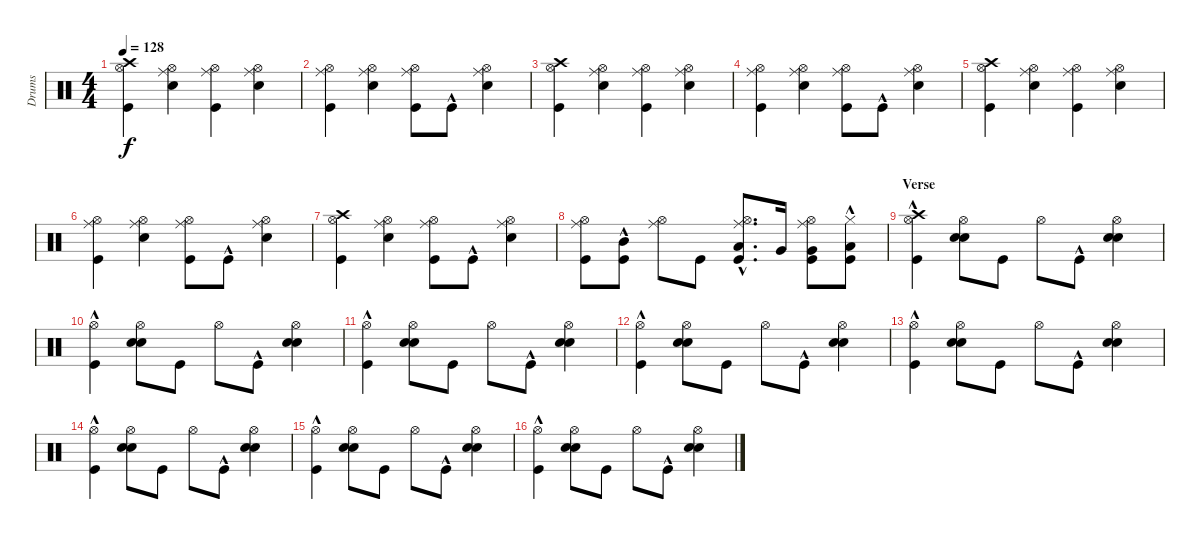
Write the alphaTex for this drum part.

\track ("Drums" "Drums") {instrument percussion}
\staff {score}
\articulation defaults
\ts (4 4)
\tempo 128
\clef neutral
\ks c
("Kick (hit)" "Hi-Hat (open)" "Crash high (hit)").4{dy f} ("Snare (hit) 2" "Hi-Hat (open)" "Ride (middle)").4 ("Kick (hit)" "Hi-Hat (open)" "Ride (middle)").4 ("Snare (hit) 2" "Hi-Hat (open)" "Ride (middle)").4 |
("Kick (hit)" "Hi-Hat (open)" "Ride (middle)").4 ("Snare (hit) 2" "Hi-Hat (open)" "Ride (middle)").4 ("Kick (hit)" "Hi-Hat (open)" "Ride (middle)").8 "Kick (hit)"{hac}.8 ("Snare (hit) 2" "Hi-Hat (open)" "Ride (middle)").4 |
("Kick (hit)" "Hi-Hat (open)" "Crash high (hit)").4 ("Snare (hit) 2" "Hi-Hat (open)" "Ride (middle)").4 ("Kick (hit)" "Hi-Hat (open)" "Ride (middle)").4 ("Snare (hit) 2" "Hi-Hat (open)" "Ride (middle)").4 |
("Kick (hit)" "Hi-Hat (open)" "Ride (middle)").4 ("Snare (hit) 2" "Hi-Hat (open)" "Ride (middle)").4 ("Kick (hit)" "Hi-Hat (open)" "Ride (middle)").8 "Kick (hit)"{hac}.8 ("Snare (hit) 2" "Hi-Hat (open)" "Ride (middle)").4 |
("Kick (hit)" "Hi-Hat (open)" "Crash high (hit)").4 ("Snare (hit) 2" "Hi-Hat (open)" "Ride (middle)").4 ("Kick (hit)" "Hi-Hat (open)" "Ride (middle)").4 ("Snare (hit) 2" "Hi-Hat (open)" "Ride (middle)").4 |
("Kick (hit)" "Hi-Hat (open)" "Ride (middle)").4 ("Snare (hit) 2" "Hi-Hat (open)" "Ride (middle)").4 ("Kick (hit)" "Hi-Hat (open)" "Ride (middle)").8 "Kick (hit)"{hac}.8 ("Snare (hit) 2" "Hi-Hat (open)" "Ride (middle)").4 |
("Kick (hit)" "Hi-Hat (open)" "Crash high (hit)").4 ("Snare (hit) 2" "Hi-Hat (open)" "Ride (middle)").4 ("Kick (hit)" "Hi-Hat (open)" "Ride (middle)").8 "Kick (hit)"{hac}.8 ("Snare (hit) 2" "Hi-Hat (open)" "Ride (middle)").4 |
("Kick (hit)" "Hi-Hat (open)" "Ride (middle)").8 ("Kick (hit)" "Mid Tom (hit)"{hac}).8 ("Hi-Hat (open)" "Ride (middle)").8 "Kick (hit)".8 ("Kick (hit)" "Low Tom (hit)"{hac} "Hi-Hat (open)" "Ride (middle)").8{d} "Very Low Tom (hit)".16 ("Kick (hit)" "Very Low Tom (hit)" "Hi-Hat (open)" "Ride (middle)").8 ("Kick (hit)" "Low Floor Tom (hit)"{hac} "Hi-Hat (closed)").8 |
\section ("" "Verse")
("Kick (hit)"{hac} "Hi-Hat (open)" "Crash high (hit)").4 ("Snare (hit) 2" "Hi-Hat (open)" "Snare (hit) 2").8 "Kick (hit)".8 "Hi-Hat (open)".8 "Kick (hit)"{hac}.8 ("Snare (hit) 2" "Hi-Hat (open)" "Snare (hit) 2").4 |
("Kick (hit)"{hac} "Hi-Hat (open)").4 ("Snare (hit) 2" "Hi-Hat (open)" "Snare (hit) 2").8 "Kick (hit)".8 "Hi-Hat (open)".8 "Kick (hit)"{hac}.8 ("Snare (hit) 2" "Hi-Hat (open)" "Snare (hit) 2").4 |
("Kick (hit)"{hac} "Hi-Hat (open)").4 ("Snare (hit) 2" "Hi-Hat (open)" "Snare (hit) 2").8 "Kick (hit)".8 "Hi-Hat (open)".8 "Kick (hit)"{hac}.8 ("Snare (hit) 2" "Hi-Hat (open)" "Snare (hit) 2").4 |
("Kick (hit)"{hac} "Hi-Hat (open)").4 ("Snare (hit) 2" "Hi-Hat (open)" "Snare (hit) 2").8 "Kick (hit)".8 "Hi-Hat (open)".8 "Kick (hit)"{hac}.8 ("Snare (hit) 2" "Hi-Hat (open)" "Snare (hit) 2").4 |
("Kick (hit)"{hac} "Hi-Hat (open)").4 ("Snare (hit) 2" "Hi-Hat (open)" "Snare (hit) 2").8 "Kick (hit)".8 "Hi-Hat (open)".8 "Kick (hit)"{hac}.8 ("Snare (hit) 2" "Hi-Hat (open)" "Snare (hit) 2").4 |
("Kick (hit)"{hac} "Hi-Hat (open)").4 ("Snare (hit) 2" "Hi-Hat (open)" "Snare (hit) 2").8 "Kick (hit)".8 "Hi-Hat (open)".8 "Kick (hit)"{hac}.8 ("Snare (hit) 2" "Hi-Hat (open)" "Snare (hit) 2").4 |
("Kick (hit)"{hac} "Hi-Hat (open)").4 ("Snare (hit) 2" "Hi-Hat (open)" "Snare (hit) 2").8 "Kick (hit)".8 "Hi-Hat (open)".8 "Kick (hit)"{hac}.8 ("Snare (hit) 2" "Hi-Hat (open)" "Snare (hit) 2").4 |
("Kick (hit)"{hac} "Hi-Hat (open)").4 ("Snare (hit) 2" "Hi-Hat (open)" "Snare (hit) 2").8 "Kick (hit)".8 "Hi-Hat (open)".8 "Kick (hit)"{hac}.8 ("Snare (hit) 2" "Hi-Hat (open)" "Snare (hit) 2").4
